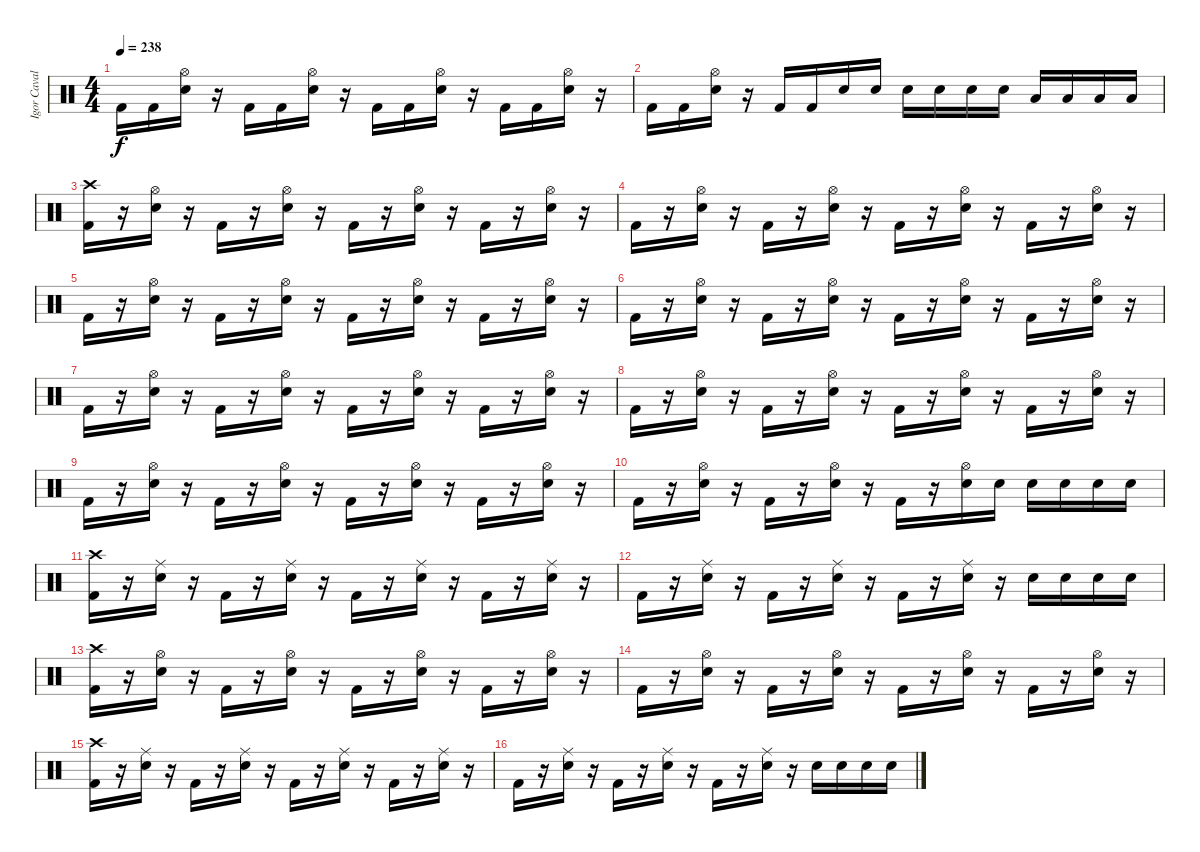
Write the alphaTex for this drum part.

\track ("Igor Cavalera" "Igor Caval") {instrument percussion}
\staff {score}
\articulation defaults
\ts (4 4)
\tempo 238
\clef neutral
\ks c "Kick (hit) 2".16{dy f} "Kick (hit) 2".16
("Snare (hit) 2" "Hi-Hat (open)").16 r.16 "Kick (hit) 2".16 "Kick (hit) 2".16 ("Snare (hit) 2" "Hi-Hat (open)").16 r.16 "Kick (hit) 2".16 "Kick (hit) 2".16 ("Snare (hit) 2" "Hi-Hat (open)").16 r.16 "Kick (hit) 2".16 "Kick (hit) 2".16 ("Snare (hit) 2" "Hi-Hat (open)").16 r.16 |
"Kick (hit) 2".16 "Kick (hit) 2".16 ("Snare (hit) 2" "Hi-Hat (open)").16 r.16 "Kick (hit) 2".16 "Kick (hit) 2".16 "Snare (hit) 2".16 "Snare (hit) 2".16 "Snare (hit) 2".16 "Snare (hit) 2".16 "Snare (hit) 2".16 "Snare (hit) 2".16 "Low Tom (hit)".16 "Low Tom (hit)".16 "Low Floor Tom (hit)".16 "Low Floor Tom (hit)".16 |
("Crash high (hit)" "Kick (hit) 2").16 r.16 ("Snare (hit) 2" "Hi-Hat (open)").16 r.16 "Kick (hit) 2".16 r.16 ("Snare (hit) 2" "Hi-Hat (open)").16 r.16 "Kick (hit) 2".16 r.16 ("Snare (hit) 2" "Hi-Hat (open)").16 r.16 "Kick (hit) 2".16 r.16 ("Snare (hit) 2" "Hi-Hat (open)").16 r.16 |
"Kick (hit) 2".16 r.16 ("Snare (hit) 2" "Hi-Hat (open)").16 r.16 "Kick (hit) 2".16 r.16 ("Snare (hit) 2" "Hi-Hat (open)").16 r.16 "Kick (hit) 2".16 r.16 ("Snare (hit) 2" "Hi-Hat (open)").16 r.16 "Kick (hit) 2".16 r.16 ("Snare (hit) 2" "Hi-Hat (open)").16 r.16 |
"Kick (hit) 2".16 r.16 ("Snare (hit) 2" "Hi-Hat (open)").16 r.16 "Kick (hit) 2".16 r.16 ("Snare (hit) 2" "Hi-Hat (open)").16 r.16 "Kick (hit) 2".16 r.16 ("Snare (hit) 2" "Hi-Hat (open)").16 r.16 "Kick (hit) 2".16 r.16 ("Snare (hit) 2" "Hi-Hat (open)").16 r.16 |
"Kick (hit) 2".16 r.16 ("Snare (hit) 2" "Hi-Hat (open)").16 r.16 "Kick (hit) 2".16 r.16 ("Snare (hit) 2" "Hi-Hat (open)").16 r.16 "Kick (hit) 2".16 r.16 ("Snare (hit) 2" "Hi-Hat (open)").16 r.16 "Kick (hit) 2".16 r.16 ("Snare (hit) 2" "Hi-Hat (open)").16 r.16 |
"Kick (hit) 2".16 r.16 ("Snare (hit) 2" "Hi-Hat (open)").16 r.16 "Kick (hit) 2".16 r.16 ("Snare (hit) 2" "Hi-Hat (open)").16 r.16 "Kick (hit) 2".16 r.16 ("Snare (hit) 2" "Hi-Hat (open)").16 r.16 "Kick (hit) 2".16 r.16 ("Snare (hit) 2" "Hi-Hat (open)").16 r.16 |
"Kick (hit) 2".16 r.16 ("Snare (hit) 2" "Hi-Hat (open)").16 r.16 "Kick (hit) 2".16 r.16 ("Snare (hit) 2" "Hi-Hat (open)").16 r.16 "Kick (hit) 2".16 r.16 ("Snare (hit) 2" "Hi-Hat (open)").16 r.16 "Kick (hit) 2".16 r.16 ("Snare (hit) 2" "Hi-Hat (open)").16 r.16 |
"Kick (hit) 2".16 r.16 ("Snare (hit) 2" "Hi-Hat (open)").16 r.16 "Kick (hit) 2".16 r.16 ("Snare (hit) 2" "Hi-Hat (open)").16 r.16 "Kick (hit) 2".16 r.16 ("Snare (hit) 2" "Hi-Hat (open)").16 r.16 "Kick (hit) 2".16 r.16 ("Snare (hit) 2" "Hi-Hat (open)").16 r.16 |
"Kick (hit) 2".16 r.16 ("Snare (hit) 2" "Hi-Hat (open)").16 r.16 "Kick (hit) 2".16 r.16 ("Snare (hit) 2" "Hi-Hat (open)").16 r.16 "Kick (hit) 2".16 r.16 ("Snare (hit) 2" "Hi-Hat (open)").16 "Snare (hit) 2".16 "Snare (hit) 2".16 "Snare (hit) 2".16 "Snare (hit) 2".16 "Snare (hit) 2".16 |
("Kick (hit) 2" "Crash high (hit)").16 r.16 ("Snare (hit) 2" "Ride (middle)").16 r.16 "Kick (hit) 2".16 r.16 ("Snare (hit) 2" "Ride (middle)").16 r.16 "Kick (hit) 2".16 r.16 ("Snare (hit) 2" "Ride (middle)").16 r.16 "Kick (hit) 2".16 r.16 ("Snare (hit) 2" "Ride (middle)").16 r.16 |
"Kick (hit) 2".16 r.16 ("Snare (hit) 2" "Ride (middle)").16 r.16 "Kick (hit) 2".16 r.16 ("Snare (hit) 2" "Ride (middle)").16 r.16 "Kick (hit) 2".16 r.16 ("Snare (hit) 2" "Ride (middle)").16 r.16 "Snare (hit) 2".16 "Snare (hit) 2".16 "Snare (hit) 2".16 "Snare (hit) 2".16 |
("Kick (hit) 2" "Crash high (hit)").16 r.16 ("Snare (hit) 2" "Hi-Hat (open)").16 r.16 "Kick (hit) 2".16 r.16 ("Snare (hit) 2" "Hi-Hat (open)").16 r.16 "Kick (hit) 2".16 r.16 ("Snare (hit) 2" "Hi-Hat (open)").16 r.16 "Kick (hit) 2".16 r.16 ("Snare (hit) 2" "Hi-Hat (open)").16 r.16 |
"Kick (hit) 2".16 r.16 ("Snare (hit) 2" "Hi-Hat (open)").16 r.16 "Kick (hit) 2".16 r.16 ("Snare (hit) 2" "Hi-Hat (open)").16 r.16 "Kick (hit) 2".16 r.16 ("Snare (hit) 2" "Hi-Hat (open)").16 r.16 "Kick (hit) 2".16 r.16 ("Snare (hit) 2" "Hi-Hat (open)").16 r.16 |
("Kick (hit) 2" "Crash high (hit)").16 r.16 ("Snare (hit) 2" "Ride (middle)").16 r.16 "Kick (hit) 2".16 r.16 ("Snare (hit) 2" "Ride (middle)").16 r.16 "Kick (hit) 2".16 r.16 ("Snare (hit) 2" "Ride (middle)").16 r.16 "Kick (hit) 2".16 r.16 ("Snare (hit) 2" "Ride (middle)").16 r.16 |
"Kick (hit) 2".16 r.16 ("Snare (hit) 2" "Ride (middle)").16 r.16 "Kick (hit) 2".16 r.16 ("Snare (hit) 2" "Ride (middle)").16 r.16 "Kick (hit) 2".16 r.16 ("Snare (hit) 2" "Ride (middle)").16 r.16 "Snare (hit) 2".16 "Snare (hit) 2".16 "Snare (hit) 2".16 "Snare (hit) 2".16
